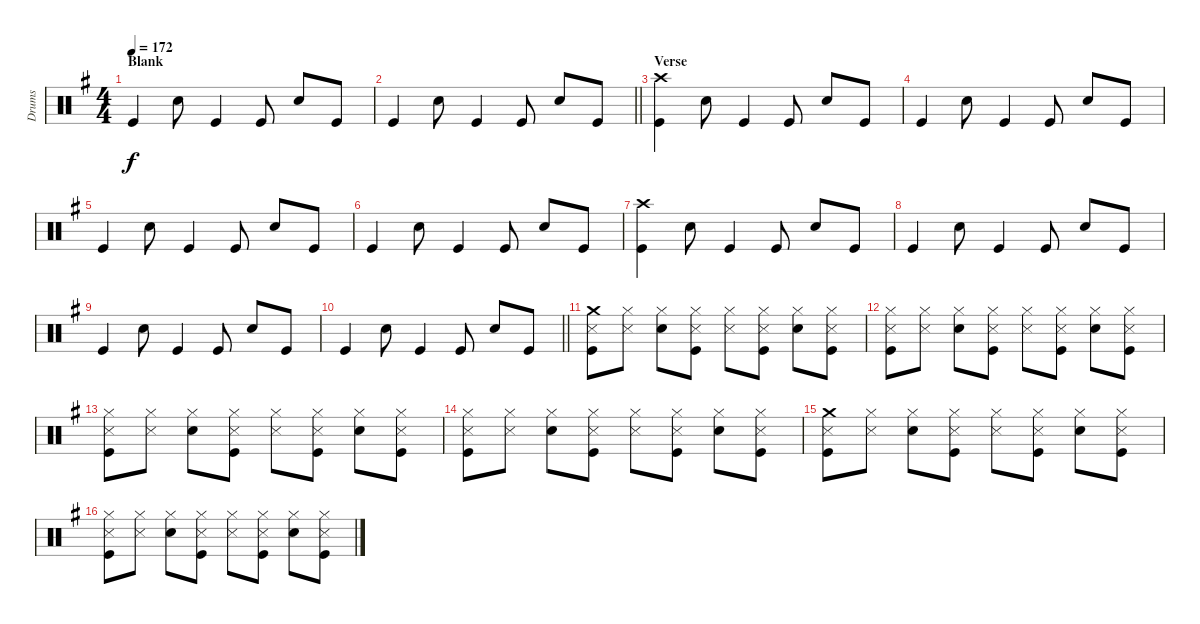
\track ("Drums" "Drums") {instrument percussion}
\staff {score}
\articulation defaults
\ts (4 4)
\section ("" "Blank")
\tempo 172
\clef neutral
\ks g "Kick (hit)".4{dy f} "Snare (hit) 2".8 "Kick (hit)".4 "Kick (hit)".8 "Snare (hit) 2".8 "Kick (hit)".8
|
\barLineRight lightlight "Kick (hit)".4 "Snare (hit) 2".8 "Kick (hit)".4 "Kick (hit)".8 "Snare (hit) 2".8 "Kick (hit)".8
|
\section ("" "Verse")
("Crash high (hit)" "Kick (hit)").4 "Snare (hit) 2".8 "Kick (hit)".4 "Kick (hit)".8 "Snare (hit) 2".8 "Kick (hit)".8 |
"Kick (hit)".4 "Snare (hit) 2".8 "Kick (hit)".4 "Kick (hit)".8 "Snare (hit) 2".8 "Kick (hit)".8 |
"Kick (hit)".4 "Snare (hit) 2".8 "Kick (hit)".4 "Kick (hit)".8 "Snare (hit) 2".8 "Kick (hit)".8 |
"Kick (hit)".4 "Snare (hit) 2".8 "Kick (hit)".4 "Kick (hit)".8 "Snare (hit) 2".8 "Kick (hit)".8 |
("Crash high (hit)" "Kick (hit)").4 "Snare (hit) 2".8 "Kick (hit)".4 "Kick (hit)".8 "Snare (hit) 2".8 "Kick (hit)".8 |
"Kick (hit)".4 "Snare (hit) 2".8 "Kick (hit)".4 "Kick (hit)".8 "Snare (hit) 2".8 "Kick (hit)".8 |
"Kick (hit)".4 "Snare (hit) 2".8 "Kick (hit)".4 "Kick (hit)".8 "Snare (hit) 2".8 "Kick (hit)".8 |
\barLineRight lightlight "Kick (hit)".4 "Snare (hit) 2".8 "Kick (hit)".4 "Kick (hit)".8 "Snare (hit) 2".8 "Kick (hit)".8
|
("Crash medium (hit)" "Snare (side stick) 3" "Kick (hit)").8 ("Hi-Hat (closed)" "Snare (side stick) 3").8 ("Hi-Hat (closed)" "Snare (hit) 2").8 ("Hi-Hat (closed)" "Snare (side stick) 3" "Kick (hit)").8 ("Hi-Hat (closed)" "Snare (side stick) 3").8 ("Hi-Hat (closed)" "Snare (side stick) 3" "Kick (hit)").8 ("Hi-Hat (closed)" "Snare (hit) 2").8 ("Hi-Hat (closed)" "Snare (side stick) 3" "Kick (hit)").8 |
("Hi-Hat (closed)" "Snare (side stick) 3" "Kick (hit)").8 ("Hi-Hat (closed)" "Snare (side stick) 3").8 ("Hi-Hat (closed)" "Snare (hit) 2").8 ("Hi-Hat (closed)" "Snare (side stick) 3" "Kick (hit)").8 ("Hi-Hat (closed)" "Snare (side stick) 3").8 ("Hi-Hat (closed)" "Snare (side stick) 3" "Kick (hit)").8 ("Hi-Hat (closed)" "Snare (hit) 2").8 ("Hi-Hat (closed)" "Snare (side stick) 3" "Kick (hit)").8 |
("Hi-Hat (closed)" "Snare (side stick) 3" "Kick (hit)").8 ("Hi-Hat (closed)" "Snare (side stick) 3").8 ("Hi-Hat (closed)" "Snare (hit) 2").8 ("Hi-Hat (closed)" "Snare (side stick) 3" "Kick (hit)").8 ("Hi-Hat (closed)" "Snare (side stick) 3").8 ("Hi-Hat (closed)" "Snare (side stick) 3" "Kick (hit)").8 ("Hi-Hat (closed)" "Snare (hit) 2").8 ("Hi-Hat (closed)" "Snare (side stick) 3" "Kick (hit)").8 |
("Hi-Hat (closed)" "Snare (side stick) 3" "Kick (hit)").8 ("Hi-Hat (closed)" "Snare (side stick) 3").8 ("Hi-Hat (closed)" "Snare (hit) 2").8 ("Hi-Hat (closed)" "Snare (side stick) 3" "Kick (hit)").8 ("Hi-Hat (closed)" "Snare (side stick) 3").8 ("Hi-Hat (closed)" "Snare (side stick) 3" "Kick (hit)").8 ("Hi-Hat (closed)" "Snare (hit) 2").8 ("Hi-Hat (closed)" "Snare (side stick) 3" "Kick (hit)").8 |
("Crash medium (hit)" "Snare (side stick) 3" "Kick (hit)").8 ("Hi-Hat (closed)" "Snare (side stick) 3").8 ("Hi-Hat (closed)" "Snare (hit) 2").8 ("Hi-Hat (closed)" "Snare (side stick) 3" "Kick (hit)").8 ("Hi-Hat (closed)" "Snare (side stick) 3").8 ("Hi-Hat (closed)" "Snare (side stick) 3" "Kick (hit)").8 ("Hi-Hat (closed)" "Snare (hit) 2").8 ("Hi-Hat (closed)" "Snare (side stick) 3" "Kick (hit)").8 |
("Hi-Hat (closed)" "Snare (side stick) 3" "Kick (hit)").8 ("Hi-Hat (closed)" "Snare (side stick) 3").8 ("Hi-Hat (closed)" "Snare (hit) 2").8 ("Hi-Hat (closed)" "Snare (side stick) 3" "Kick (hit)").8 ("Hi-Hat (closed)" "Snare (side stick) 3").8 ("Hi-Hat (closed)" "Snare (side stick) 3" "Kick (hit)").8 ("Hi-Hat (closed)" "Snare (hit) 2").8 ("Hi-Hat (closed)" "Snare (side stick) 3" "Kick (hit)").8
